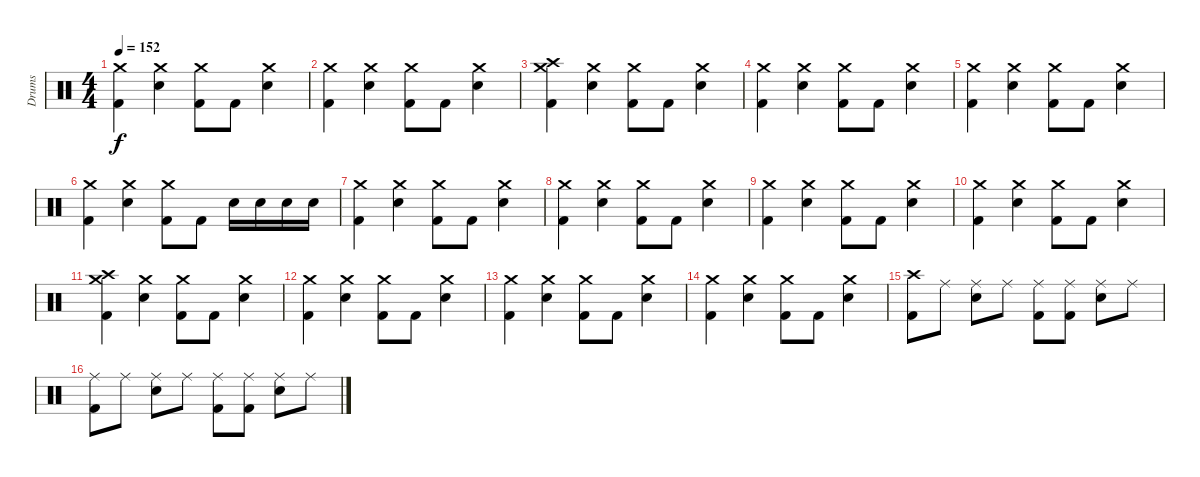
\track ("Drums" "Drums") {instrument percussion}
\staff {score}
\articulation defaults
\ts (4 4)
\tempo 152
\clef neutral
\ks c
("Crash medium (hit)" "Kick (hit) 2").4{dy f} ("Crash medium (hit)" "Snare (hit) 2").4 ("Crash medium (hit)" "Kick (hit) 2").8 "Kick (hit) 2".8 ("Crash medium (hit)" "Snare (hit) 2").4 |
("Crash medium (hit)" "Kick (hit) 2").4 ("Crash medium (hit)" "Snare (hit) 2").4 ("Crash medium (hit)" "Kick (hit) 2").8 "Kick (hit) 2".8 ("Crash medium (hit)" "Snare (hit) 2").4 |
("Crash high (hit)" "Crash medium (hit)" "Kick (hit) 2").4 ("Crash medium (hit)" "Snare (hit) 2").4 ("Crash medium (hit)" "Kick (hit) 2").8 "Kick (hit) 2".8 ("Crash medium (hit)" "Snare (hit) 2").4 |
("Crash medium (hit)" "Kick (hit) 2").4 ("Crash medium (hit)" "Snare (hit) 2").4 ("Crash medium (hit)" "Kick (hit) 2").8 "Kick (hit) 2".8 ("Crash medium (hit)" "Snare (hit) 2").4 |
("Crash medium (hit)" "Kick (hit) 2").4 ("Crash medium (hit)" "Snare (hit) 2").4 ("Crash medium (hit)" "Kick (hit) 2").8 "Kick (hit) 2".8 ("Crash medium (hit)" "Snare (hit) 2").4 |
("Crash medium (hit)" "Kick (hit) 2").4 ("Crash medium (hit)" "Snare (hit) 2").4 ("Crash medium (hit)" "Kick (hit) 2").8 "Kick (hit) 2".8 "Snare (hit) 2".16 "Snare (hit) 2".16 "Snare (hit) 2".16 "Snare (hit) 2".16 |
("Crash medium (hit)" "Kick (hit) 2").4 ("Crash medium (hit)" "Snare (hit) 2").4 ("Crash medium (hit)" "Kick (hit) 2").8 "Kick (hit) 2".8 ("Crash medium (hit)" "Snare (hit) 2").4 |
("Crash medium (hit)" "Kick (hit) 2").4 ("Crash medium (hit)" "Snare (hit) 2").4 ("Crash medium (hit)" "Kick (hit) 2").8 "Kick (hit) 2".8 ("Crash medium (hit)" "Snare (hit) 2").4 |
("Crash medium (hit)" "Kick (hit) 2").4 ("Crash medium (hit)" "Snare (hit) 2").4 ("Crash medium (hit)" "Kick (hit) 2").8 "Kick (hit) 2".8 ("Crash medium (hit)" "Snare (hit) 2").4 |
("Crash medium (hit)" "Kick (hit) 2").4 ("Crash medium (hit)" "Snare (hit) 2").4 ("Crash medium (hit)" "Kick (hit) 2").8 "Kick (hit) 2".8 ("Crash medium (hit)" "Snare (hit) 2").4 |
("Crash high (hit)" "Crash medium (hit)" "Kick (hit) 2").4 ("Crash medium (hit)" "Snare (hit) 2").4 ("Crash medium (hit)" "Kick (hit) 2").8 "Kick (hit) 2".8 ("Crash medium (hit)" "Snare (hit) 2").4 |
("Crash medium (hit)" "Kick (hit) 2").4 ("Crash medium (hit)" "Snare (hit) 2").4 ("Crash medium (hit)" "Kick (hit) 2").8 "Kick (hit) 2".8 ("Crash medium (hit)" "Snare (hit) 2").4 |
("Crash medium (hit)" "Kick (hit) 2").4 ("Crash medium (hit)" "Snare (hit) 2").4 ("Crash medium (hit)" "Kick (hit) 2").8 "Kick (hit) 2".8 ("Crash medium (hit)" "Snare (hit) 2").4 |
("Crash medium (hit)" "Kick (hit) 2").4 ("Crash medium (hit)" "Snare (hit) 2").4 ("Crash medium (hit)" "Kick (hit) 2").8 "Kick (hit) 2".8 ("Crash medium (hit)" "Snare (hit) 2").4 |
("Crash high (hit)" "Kick (hit) 2").8 "Ride (middle)".8 ("Ride (middle)" "Snare (hit) 2").8 "Ride (middle)".8 ("Ride (middle)" "Kick (hit) 2").8 ("Ride (middle)" "Kick (hit) 2").8 ("Ride (middle)" "Snare (hit) 2").8 "Ride (middle)".8 |
("Ride (middle)" "Kick (hit) 2").8 "Ride (middle)".8 ("Ride (middle)" "Snare (hit) 2").8 "Ride (middle)".8 ("Ride (middle)" "Kick (hit) 2").8 ("Ride (middle)" "Kick (hit) 2").8 ("Ride (middle)" "Snare (hit) 2").8 "Ride (middle)".8
